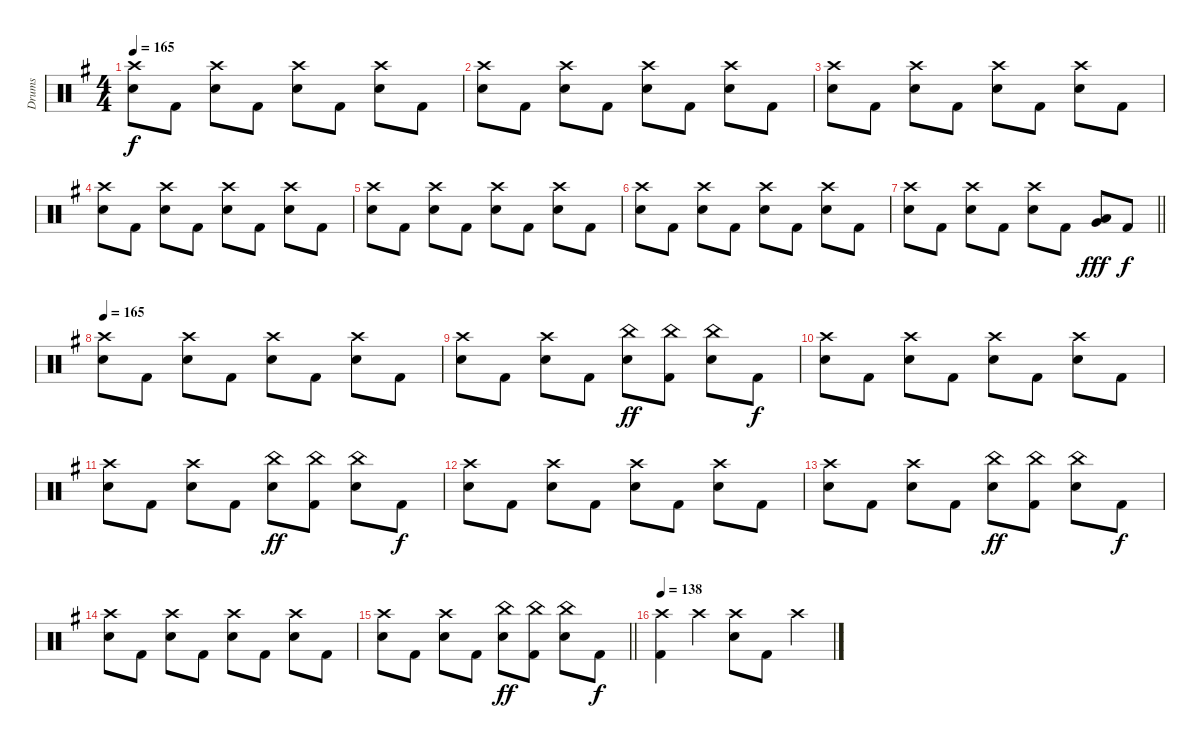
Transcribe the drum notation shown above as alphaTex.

\track ("Drums" "Drums") {instrument percussion}
\staff {score}
\articulation defaults
\ts (4 4)
\tempo 165
\clef neutral
\ks eminor
("Crash high (hit)" "Snare (hit) 2").8{dy f} "Kick (hit) 2".8 ("Crash high (hit)" "Snare (hit) 2").8 "Kick (hit) 2".8 ("Crash high (hit)" "Snare (hit) 2").8 "Kick (hit) 2".8 ("Crash high (hit)" "Snare (hit) 2").8 "Kick (hit) 2".8 |
("Crash high (hit)" "Snare (hit) 2").8 "Kick (hit) 2".8 ("Crash high (hit)" "Snare (hit) 2").8 "Kick (hit) 2".8 ("Crash high (hit)" "Snare (hit) 2").8 "Kick (hit) 2".8 ("Crash high (hit)" "Snare (hit) 2").8 "Kick (hit) 2".8 |
("Crash high (hit)" "Snare (hit) 2").8 "Kick (hit) 2".8 ("Crash high (hit)" "Snare (hit) 2").8 "Kick (hit) 2".8 ("Crash high (hit)" "Snare (hit) 2").8 "Kick (hit) 2".8 ("Crash high (hit)" "Snare (hit) 2").8 "Kick (hit) 2".8 |
("Crash high (hit)" "Snare (hit) 2").8 "Kick (hit) 2".8 ("Crash high (hit)" "Snare (hit) 2").8 "Kick (hit) 2".8 ("Crash high (hit)" "Snare (hit) 2").8 "Kick (hit) 2".8 ("Crash high (hit)" "Snare (hit) 2").8 "Kick (hit) 2".8 |
("Crash high (hit)" "Snare (hit) 2").8 "Kick (hit) 2".8 ("Crash high (hit)" "Snare (hit) 2").8 "Kick (hit) 2".8 ("Crash high (hit)" "Snare (hit) 2").8 "Kick (hit) 2".8 ("Crash high (hit)" "Snare (hit) 2").8 "Kick (hit) 2".8 |
("Crash high (hit)" "Snare (hit) 2").8 "Kick (hit) 2".8 ("Crash high (hit)" "Snare (hit) 2").8 "Kick (hit) 2".8 ("Crash high (hit)" "Snare (hit) 2").8 "Kick (hit) 2".8 ("Crash high (hit)" "Snare (hit) 2").8 "Kick (hit) 2".8 |
\barLineRight lightlight
("Crash high (hit)" "Snare (hit) 2").8 "Kick (hit) 2".8 ("Crash high (hit)" "Snare (hit) 2").8 "Kick (hit) 2".8 ("Crash high (hit)" "Snare (hit) 2").8 "Kick (hit) 2".8 ("Low Tom (hit)" "Very Low Tom (hit)").8{dy fff} "Kick (hit) 2".8{dy f} |
\tempo 165
("Crash high (hit)" "Snare (hit) 2").8 "Kick (hit) 2".8 ("Crash high (hit)" "Snare (hit) 2").8 "Kick (hit) 2".8 ("Crash high (hit)" "Snare (hit) 2").8 "Kick (hit) 2".8 ("Crash high (hit)" "Snare (hit) 2").8 "Kick (hit) 2".8 |
("Crash high (hit)" "Snare (hit) 2").8 "Kick (hit) 2".8 ("Crash high (hit)" "Snare (hit) 2").8 "Kick (hit) 2".8 ("China (hit)" "Snare (hit) 2").8{dy ff} ("China (hit)" "Kick (hit) 2").8 ("China (hit)" "Snare (hit) 2").8 "Kick (hit) 2".8{dy f} |
("Crash high (hit)" "Snare (hit) 2").8 "Kick (hit) 2".8 ("Crash high (hit)" "Snare (hit) 2").8 "Kick (hit) 2".8 ("Crash high (hit)" "Snare (hit) 2").8 "Kick (hit) 2".8 ("Crash high (hit)" "Snare (hit) 2").8 "Kick (hit) 2".8 |
("Crash high (hit)" "Snare (hit) 2").8 "Kick (hit) 2".8 ("Crash high (hit)" "Snare (hit) 2").8 "Kick (hit) 2".8 ("China (hit)" "Snare (hit) 2").8{dy ff} ("China (hit)" "Kick (hit) 2").8 ("China (hit)" "Snare (hit) 2").8 "Kick (hit) 2".8{dy f} |
("Crash high (hit)" "Snare (hit) 2").8 "Kick (hit) 2".8 ("Crash high (hit)" "Snare (hit) 2").8 "Kick (hit) 2".8 ("Crash high (hit)" "Snare (hit) 2").8 "Kick (hit) 2".8 ("Crash high (hit)" "Snare (hit) 2").8 "Kick (hit) 2".8 |
("Crash high (hit)" "Snare (hit) 2").8 "Kick (hit) 2".8 ("Crash high (hit)" "Snare (hit) 2").8 "Kick (hit) 2".8 ("China (hit)" "Snare (hit) 2").8{dy ff} ("China (hit)" "Kick (hit) 2").8 ("China (hit)" "Snare (hit) 2").8 "Kick (hit) 2".8{dy f} |
("Crash high (hit)" "Snare (hit) 2").8 "Kick (hit) 2".8 ("Crash high (hit)" "Snare (hit) 2").8 "Kick (hit) 2".8 ("Crash high (hit)" "Snare (hit) 2").8 "Kick (hit) 2".8 ("Crash high (hit)" "Snare (hit) 2").8 "Kick (hit) 2".8 |
\barLineRight lightlight
("Crash high (hit)" "Snare (hit) 2").8 "Kick (hit) 2".8 ("Crash high (hit)" "Snare (hit) 2").8 "Kick (hit) 2".8 ("China (hit)" "Snare (hit) 2").8{dy ff} ("China (hit)" "Kick (hit) 2").8 ("China (hit)" "Snare (hit) 2").8 "Kick (hit) 2".8{dy f} |
\tempo 138
("Crash high (hit)" "Kick (hit) 2").4 "Crash high (hit)".4 ("Crash high (hit)" "Snare (hit) 2").8 "Kick (hit) 2".8 "Crash high (hit)".4
